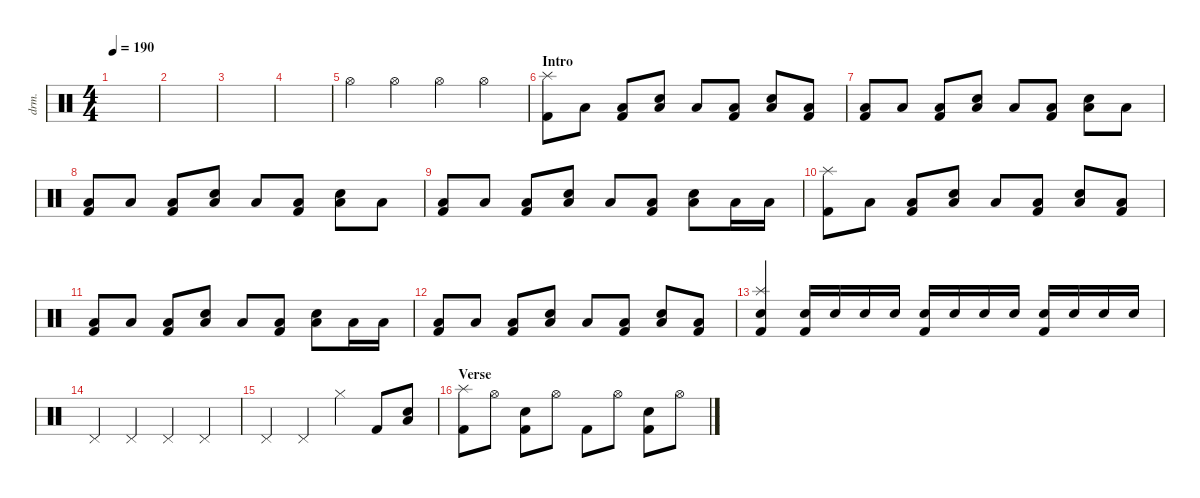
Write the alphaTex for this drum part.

\defaultSystemsLayout 4
\hideDynamics
\bracketExtendMode nobrackets
\track ("伊地知虹夏" "drm.") {instrument percussion}
\staff {score}
\articulation defaults
\ts (4 4)
\tempo 190
\clef neutral
\ks c
|
|
|
|
"Hi-Hat (open)".4 "Hi-Hat (open)".4 "Hi-Hat (open)".4 "Hi-Hat (open)".4 |
\section ("" "Intro")
("Kick (hit) 2" "Splash (hit)").8 "Low Tom (hit)".8 ("Low Tom (hit)" "Kick (hit) 2").8 ("Low Tom (hit)" "Snare (hit) 2").8 "Low Tom (hit)".8 ("Low Tom (hit)" "Kick (hit) 2").8 ("Low Tom (hit)" "Snare (hit) 2").8 ("Low Tom (hit)" "Kick (hit) 2").8 |
("Kick (hit) 2" "Low Tom (hit)").8 "Low Tom (hit)".8 ("Low Tom (hit)" "Kick (hit) 2").8 ("Low Tom (hit)" "Snare (hit) 2").8 "Low Tom (hit)".8 ("Low Tom (hit)" "Kick (hit) 2").8 ("Low Tom (hit)" "Snare (hit) 2").8 "Low Tom (hit)".8 |
("Kick (hit) 2" "Low Tom (hit)").8 "Low Tom (hit)".8 ("Low Tom (hit)" "Kick (hit) 2").8 ("Low Tom (hit)" "Snare (hit) 2").8 "Low Tom (hit)".8 ("Low Tom (hit)" "Kick (hit) 2").8 ("Low Tom (hit)" "Snare (hit) 2").8 "Low Tom (hit)".8 |
("Kick (hit) 2" "Low Tom (hit)").8 "Low Tom (hit)".8 ("Low Tom (hit)" "Kick (hit) 2").8 ("Low Tom (hit)" "Snare (hit) 2").8 "Low Tom (hit)".8 ("Low Tom (hit)" "Kick (hit) 2").8 ("Low Tom (hit)" "Snare (hit) 2").8 "Low Tom (hit)".16 "Low Tom (hit)".16 |
("Kick (hit) 2" "Splash (hit)").8 "Low Tom (hit)".8 ("Low Tom (hit)" "Kick (hit) 2").8 ("Low Tom (hit)" "Snare (hit) 2").8 "Low Tom (hit)".8 ("Low Tom (hit)" "Kick (hit) 2").8 ("Low Tom (hit)" "Snare (hit) 2").8 ("Low Tom (hit)" "Kick (hit) 2").8 |
("Kick (hit) 2" "Low Tom (hit)").8 "Low Tom (hit)".8 ("Low Tom (hit)" "Kick (hit) 2").8 ("Low Tom (hit)" "Snare (hit) 2").8 "Low Tom (hit)".8 ("Low Tom (hit)" "Kick (hit) 2").8 ("Low Tom (hit)" "Snare (hit) 2").8 "Low Tom (hit)".16 "Low Tom (hit)".16 |
("Kick (hit) 2" "Low Tom (hit)").8 "Low Tom (hit)".8 ("Low Tom (hit)" "Kick (hit) 2").8 ("Low Tom (hit)" "Snare (hit) 2").8 "Low Tom (hit)".8 ("Low Tom (hit)" "Kick (hit) 2").8 ("Low Tom (hit)" "Snare (hit) 2").8 ("Low Tom (hit)" "Kick (hit) 2").8 |
("Splash (hit)" "Snare (hit) 2" "Kick (hit) 2").4 ("Snare (hit) 2" "Kick (hit) 2").16 "Snare (hit) 2".16 "Snare (hit) 2".16 "Snare (hit) 2".16 ("Snare (hit) 2" "Kick (hit) 2").16 "Snare (hit) 2".16 "Snare (hit) 2".16 "Snare (hit) 2".16 ("Snare (hit) 2" "Kick (hit) 2").16 "Snare (hit) 2".16 "Snare (hit) 2".16 "Snare (hit) 2".16 |
"Pedal Hi-Hat (hit)".4 "Pedal Hi-Hat (hit)".4 "Pedal Hi-Hat (hit)".4 "Pedal Hi-Hat (hit)".4 |
"Pedal Hi-Hat (hit)".4 "Pedal Hi-Hat (hit)".4 "Hi-Hat (closed)".4 "Kick (hit) 2".8 ("Low Tom (hit)" "Snare (hit) 2").8 |
\section ("" "Verse")
("Kick (hit) 2" "Splash (hit)").8 "Hi-Hat (open)".8 ("Snare (hit) 2" "Kick (hit) 2").8 "Hi-Hat (open)".8 "Kick (hit) 2".8 "Hi-Hat (open)".8 ("Kick (hit) 2" "Snare (hit) 2").8 "Hi-Hat (open)".8
